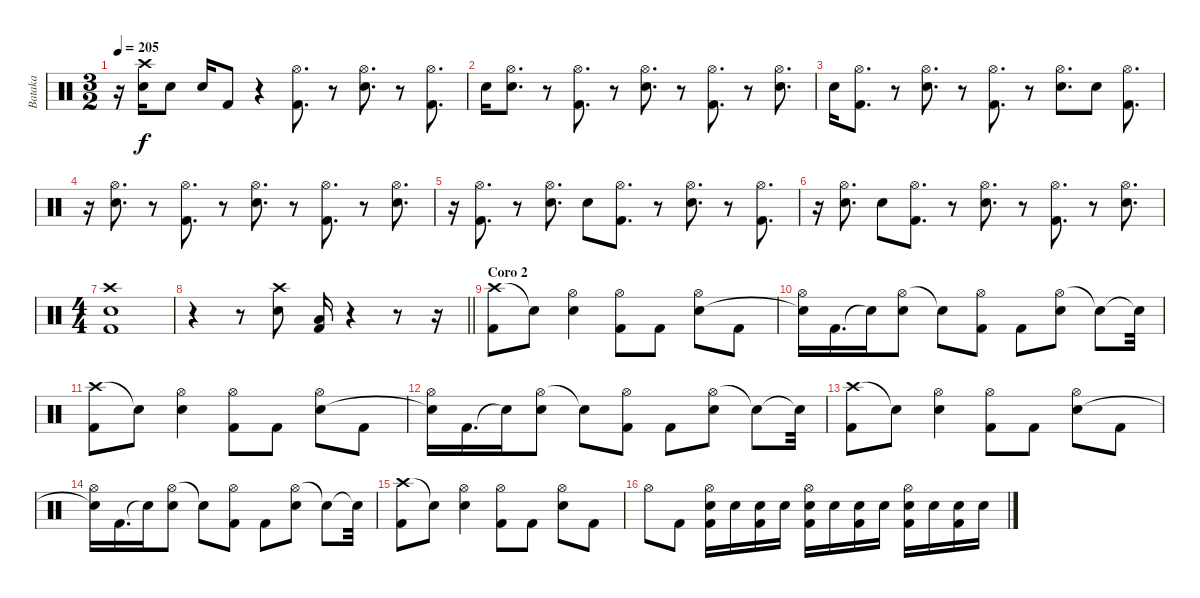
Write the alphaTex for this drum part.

\track ("Bataka" "Bataka") {instrument percussion}
\staff {score}
\articulation defaults
\ts (3 2)
\tempo 205
\clef neutral
\ks c
r.16{dy f} ("Crash high (hit)" "Snare (hit) 2").16 "Snare (hit) 2".8 "Snare (hit) 2".16 "Kick (hit) 2".8 r.4 ("Hi-Hat (open)" "Kick (hit) 2").8{d} r.8 ("Hi-Hat (open)" "Snare (hit) 2").8{d} r.8 ("Hi-Hat (open)" "Kick (hit) 2").8{d} |
"Snare (hit) 2".16 ("Hi-Hat (open)" "Snare (hit) 2").8{d} r.8 ("Hi-Hat (open)" "Kick (hit) 2").8{d} r.8 ("Hi-Hat (open)" "Snare (hit) 2").8{d} r.8 ("Hi-Hat (open)" "Kick (hit) 2").8{d} r.8 ("Hi-Hat (open)" "Snare (hit) 2").8{d} |
"Snare (hit) 2".16 ("Hi-Hat (open)" "Kick (hit) 2").8{d} r.8 ("Hi-Hat (open)" "Snare (hit) 2").8{d} r.8 ("Hi-Hat (open)" "Kick (hit) 2").8{d} r.8 ("Hi-Hat (open)" "Snare (hit) 2").8{d} "Snare (hit) 2".8 ("Hi-Hat (open)" "Kick (hit) 2").8{d} |
r.16 ("Hi-Hat (open)" "Snare (hit) 2").8{d} r.8 ("Hi-Hat (open)" "Kick (hit) 2").8{d} r.8 ("Hi-Hat (open)" "Snare (hit) 2").8{d} r.8 ("Hi-Hat (open)" "Kick (hit) 2").8{d} r.8 ("Hi-Hat (open)" "Snare (hit) 2").8{d} |
r.16 ("Hi-Hat (open)" "Kick (hit) 2").8{d} r.8 ("Hi-Hat (open)" "Snare (hit) 2").8{d} "Snare (hit) 2".8 ("Hi-Hat (open)" "Kick (hit) 2").8{d} r.8 ("Hi-Hat (open)" "Snare (hit) 2").8{d} r.8 ("Hi-Hat (open)" "Kick (hit) 2").8{d} |
r.16 ("Hi-Hat (open)" "Snare (hit) 2").8{d} "Snare (hit) 2".8 ("Hi-Hat (open)" "Kick (hit) 2").8{d} r.8 ("Hi-Hat (open)" "Snare (hit) 2").8{d} r.8 ("Hi-Hat (open)" "Kick (hit) 2").8{d} r.8 ("Hi-Hat (open)" "Snare (hit) 2").8{d} |
\ts (4 4)
("Crash high (hit)" "Snare (hit) 2" "Kick (hit) 2").1 |
\barLineRight lightlight
r.4 r.8 ("Crash high (hit)" "Snare (hit) 2").8 ("Low Floor Tom (hit)" "Kick (hit) 2").16 r.4 r.8 r.16 |
\section ("" "Coro 2")
("Crash high (hit)" "Kick (hit) 2").8 "Snare (hit)"{t}.8 ("Hi-Hat (open)" "Snare (hit) 2").4 ("Hi-Hat (open)" "Kick (hit) 2").8 "Kick (hit) 2".8 ("Hi-Hat (open)" "Snare (hit) 2").8 "Kick (hit) 2".8 |
("Hi-Hat (open)" "Snare (hit)"{t}).16 "Kick (hit) 2".16{d} "Snare (hit)"{t}.16 ("Hi-Hat (open)" "Snare (hit) 2").8 "Snare (hit)"{t}.8 ("Hi-Hat (open)" "Kick (hit) 2").8 "Kick (hit) 2".8 ("Hi-Hat (open)" "Snare (hit) 2").8 "Snare (hit)"{t}.8 "Snare (hit)"{t}.32 |
("Crash high (hit)" "Kick (hit) 2").8 "Snare (hit)"{t}.8 ("Hi-Hat (open)" "Snare (hit) 2").4 ("Hi-Hat (open)" "Kick (hit) 2").8 "Kick (hit) 2".8 ("Hi-Hat (open)" "Snare (hit) 2").8 "Kick (hit) 2".8 |
("Hi-Hat (open)" "Snare (hit)"{t}).16 "Kick (hit) 2".16{d} "Snare (hit)"{t}.16 ("Hi-Hat (open)" "Snare (hit) 2").8 "Snare (hit)"{t}.8 ("Hi-Hat (open)" "Kick (hit) 2").8 "Kick (hit) 2".8 ("Hi-Hat (open)" "Snare (hit) 2").8 "Snare (hit)"{t}.8 "Snare (hit)"{t}.32 |
("Crash high (hit)" "Kick (hit) 2").8 "Snare (hit)"{t}.8 ("Hi-Hat (open)" "Snare (hit) 2").4 ("Hi-Hat (open)" "Kick (hit) 2").8 "Kick (hit) 2".8 ("Hi-Hat (open)" "Snare (hit) 2").8 "Kick (hit) 2".8 |
("Hi-Hat (open)" "Snare (hit)"{t}).16 "Kick (hit) 2".16{d} "Snare (hit)"{t}.16 ("Hi-Hat (open)" "Snare (hit) 2").8 "Snare (hit)"{t}.8 ("Hi-Hat (open)" "Kick (hit) 2").8 "Kick (hit) 2".8 ("Hi-Hat (open)" "Snare (hit) 2").8 "Snare (hit)"{t}.8 "Snare (hit)"{t}.32 |
("Crash high (hit)" "Kick (hit) 2").8 "Snare (hit)"{t}.8 ("Hi-Hat (open)" "Snare (hit) 2").4 ("Hi-Hat (open)" "Kick (hit) 2").8 "Kick (hit) 2".8 ("Hi-Hat (open)" "Snare (hit) 2").8 "Kick (hit) 2".8 |
"Hi-Hat (open)".8 "Kick (hit) 2".8 ("Hi-Hat (open)" "Snare (hit) 2" "Kick (hit) 2").16 "Snare (hit) 2".16 ("Snare (hit) 2" "Kick (hit) 2").16 "Snare (hit) 2".16 ("Hi-Hat (open)" "Snare (hit) 2" "Kick (hit) 2").16 "Snare (hit) 2".16 ("Snare (hit) 2" "Kick (hit) 2").16 "Snare (hit) 2".16 ("Hi-Hat (open)" "Snare (hit) 2" "Kick (hit) 2").16 "Snare (hit) 2".16 ("Snare (hit) 2" "Kick (hit) 2").16 "Snare (hit) 2".16
